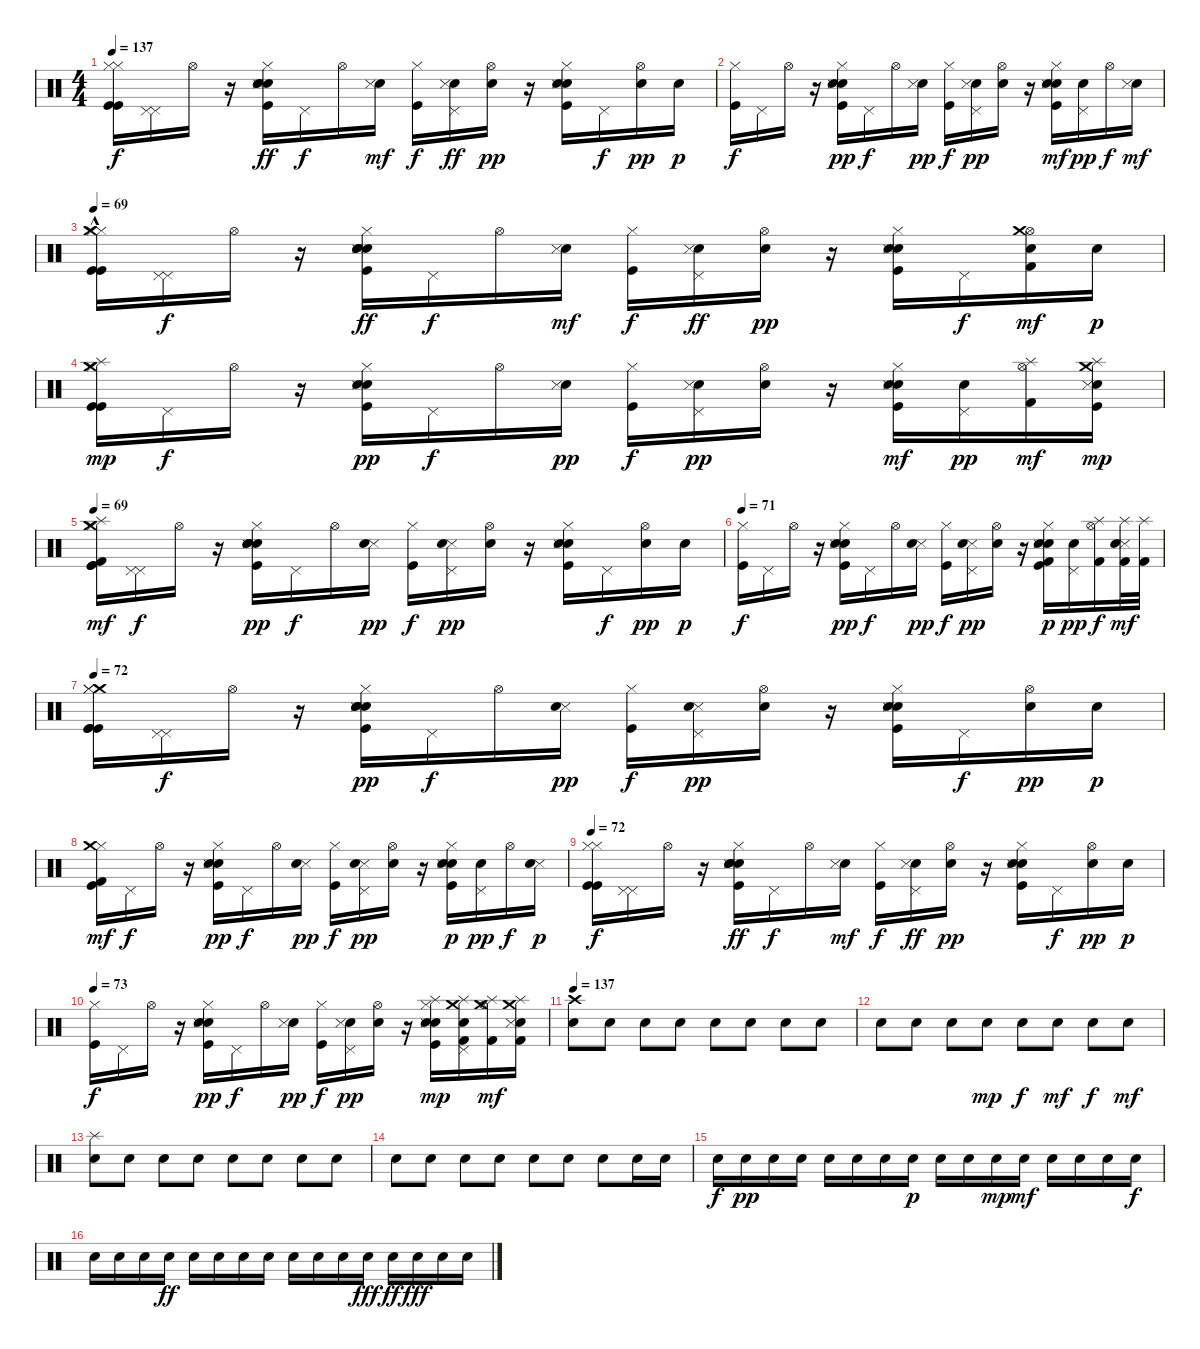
\track "" {instrument percussion}
\staff {score}
\articulation defaults
\ts (4 4)
\tempo 137
\clef neutral
\ks c
("Hi-Hat (closed)" "Kick (hit)" "Kick (hit)" "Hi-Hat (closed)").16{dy f volume 13} ("Pedal Hi-Hat (hit)" "Pedal Hi-Hat (hit)").16 "Hi-Hat (open)".16 r.16 ("Hand Clap (hit)" "Kick (hit)" "Hi-Hat (closed)" "Metronome (bell)" "Metronome (bell)" "Snare (side stick) 3").16{dy ff} "Pedal Hi-Hat (hit)".16{dy f} "Hi-Hat (open)".16 ("Metronome (bell)" "Snare (side stick) 3").16{dy mf} ("Kick (hit)" "Hi-Hat (closed)").16{dy f} ("Pedal Hi-Hat (hit)" "Metronome (bell)" "Snare (side stick) 3").16{dy ff} ("Hi-Hat (open)" "Metronome (bell)").16{dy pp} r.16 ("Hand Clap (hit)" "Hi-Hat (closed)" "Kick (hit)" "Metronome (bell)" "Snare (side stick) 3").16 "Pedal Hi-Hat (hit)".16{dy f} ("Hi-Hat (open)" "Metronome (bell)").16{dy pp} "Metronome (bell)".16{dy p} |
("Hi-Hat (closed)" "Kick (hit)").16{dy f} "Pedal Hi-Hat (hit)".16 "Hi-Hat (open)".16 r.16 ("Hand Clap (hit)" "Kick (hit)" "Hi-Hat (closed)" "Metronome (bell)" "Snare (side stick) 3").16{dy pp} "Pedal Hi-Hat (hit)".16{dy f} "Hi-Hat (open)".16 ("Metronome (bell)" "Snare (side stick) 3").16{dy pp} ("Kick (hit)" "Hi-Hat (closed)").16{dy f} ("Pedal Hi-Hat (hit)" "Metronome (bell)" "Snare (side stick) 3").16{dy pp} ("Hi-Hat (open)" "Metronome (bell)").16 r.16 ("Hand Clap (hit)" "Hi-Hat (closed)" "Kick (hit)" "Metronome (bell)" "Snare (side stick) 3").16{dy mf} ("Pedal Hi-Hat (hit)" "Metronome (bell)").16{dy pp} "Hi-Hat (open)".16{dy f} ("Metronome (bell)" "Snare (side stick) 3").16{dy mf} |
\tempo 69
("Hi-Hat (closed)" "Kick (hit)" "Kick (hit)" "Hi-Hat (closed)" "Crash medium (hit)"{hac}).16{volume 13} ("Pedal Hi-Hat (hit)" "Pedal Hi-Hat (hit)").16{dy f} "Hi-Hat (open)".16 r.16 ("Hand Clap (hit)" "Kick (hit)" "Hi-Hat (closed)" "Metronome (bell)" "Metronome (bell)" "Snare (side stick) 3").16{dy ff} "Pedal Hi-Hat (hit)".16{dy f} "Hi-Hat (open)".16 ("Metronome (bell)" "Snare (side stick) 3").16{dy mf} ("Kick (hit)" "Hi-Hat (closed)").16{dy f} ("Pedal Hi-Hat (hit)" "Metronome (bell)" "Snare (side stick) 3").16{dy ff} ("Hi-Hat (open)" "Metronome (bell)").16{dy pp} r.16 ("Hand Clap (hit)" "Hi-Hat (closed)" "Kick (hit)" "Metronome (bell)" "Snare (side stick) 3").16 "Pedal Hi-Hat (hit)".16{dy f} ("Hi-Hat (open)" "Metronome (bell)" "Kick (hit) 2" "Crash medium (hit)").16{dy mf} "Metronome (bell)".16{dy p} |
("Hi-Hat (closed)" "Kick (hit)" "Splash (hit)" "Kick (hit)" "Crash medium (hit)").16{dy mp} "Pedal Hi-Hat (hit)".16{dy f} "Hi-Hat (open)".16 r.16 ("Hand Clap (hit)" "Kick (hit)" "Hi-Hat (closed)" "Metronome (bell)" "Snare (side stick) 3").16{dy pp} "Pedal Hi-Hat (hit)".16{dy f} "Hi-Hat (open)".16 ("Metronome (bell)" "Snare (side stick) 3").16{dy pp} ("Kick (hit)" "Hi-Hat (closed)").16{dy f} ("Pedal Hi-Hat (hit)" "Metronome (bell)" "Snare (side stick) 3").16{dy pp} ("Hi-Hat (open)" "Metronome (bell)").16 r.16 ("Hand Clap (hit)" "Hi-Hat (closed)" "Kick (hit)" "Metronome (bell)" "Snare (side stick) 3").16{dy mf} ("Pedal Hi-Hat (hit)" "Metronome (bell)").16{dy pp} ("Hi-Hat (open)" "Splash (hit)" "Kick (hit) 2").16{dy mf} ("Metronome (bell)" "Snare (side stick) 3" "Splash (hit)" "Kick (hit)" "Crash medium (hit)").16{dy mp} |
\tempo 69
("Splash (hit)" "Kick (hit) 2" "Crash medium (hit)" "Hi-Hat (closed)" "Kick (hit)" "Kick (hit)").16{dy mf volume 13} ("Pedal Hi-Hat (hit)" "Pedal Hi-Hat (hit)").16{dy f} "Hi-Hat (open)".16 r.16 ("Hand Clap (hit)" "Kick (hit)" "Hi-Hat (closed)" "Snare (side stick) 3" "Metronome (bell)" "Metronome (bell)").16{dy pp} "Pedal Hi-Hat (hit)".16{dy f} "Hi-Hat (open)".16 ("Snare (side stick) 3" "Metronome (bell)").16{dy pp} ("Kick (hit)" "Hi-Hat (closed)").16{dy f} ("Pedal Hi-Hat (hit)" "Snare (side stick) 3" "Metronome (bell)").16{dy pp} ("Hi-Hat (open)" "Metronome (bell)").16 r.16 ("Hand Clap (hit)" "Hi-Hat (closed)" "Kick (hit)" "Snare (side stick) 3" "Metronome (bell)").16 "Pedal Hi-Hat (hit)".16{dy f} ("Hi-Hat (open)" "Metronome (bell)").16{dy pp} "Metronome (bell)".16{dy p} |
\tempo 71
("Hi-Hat (closed)" "Kick (hit)").16{dy f} "Pedal Hi-Hat (hit)".16 "Hi-Hat (open)".16 r.16 ("Hand Clap (hit)" "Kick (hit)" "Hi-Hat (closed)" "Snare (side stick) 3" "Metronome (bell)").16{dy pp} "Pedal Hi-Hat (hit)".16{dy f} "Hi-Hat (open)".16 ("Snare (side stick) 3" "Metronome (bell)").16{dy pp} ("Kick (hit)" "Hi-Hat (closed)").16{dy f} ("Pedal Hi-Hat (hit)" "Snare (side stick) 3" "Metronome (bell)").16{dy pp} ("Hi-Hat (open)" "Metronome (bell)").16 r.16 ("Hand Clap (hit)" "Hi-Hat (closed)" "Kick (hit)" "Snare (side stick) 3" "Metronome (bell)" "Kick (hit) 2").16{dy p} ("Pedal Hi-Hat (hit)" "Metronome (bell)").16{dy pp} ("Hi-Hat (open)" "Splash (hit)" "Kick (hit) 2").16{dy f} ("Snare (side stick) 3" "Metronome (bell)" "Splash (hit)" "Kick (hit) 2").32{dy mf} ("Kick (hit) 2" "Splash (hit)").32 |
\tempo 72
("Kick (hit)" "Crash medium (hit)" "Hi-Hat (closed)" "Kick (hit)" "Kick (hit)" "Hi-Hat (closed)").16{volume 13} ("Pedal Hi-Hat (hit)" "Pedal Hi-Hat (hit)").16{dy f} "Hi-Hat (open)".16 r.16 ("Hand Clap (hit)" "Kick (hit)" "Hi-Hat (closed)" "Snare (side stick) 3" "Metronome (bell)" "Metronome (bell)").16{dy pp} "Pedal Hi-Hat (hit)".16{dy f} "Hi-Hat (open)".16 ("Snare (side stick) 3" "Metronome (bell)").16{dy pp} ("Kick (hit)" "Hi-Hat (closed)").16{dy f} ("Pedal Hi-Hat (hit)" "Snare (side stick) 3" "Metronome (bell)").16{dy pp} ("Hi-Hat (open)" "Metronome (bell)").16 r.16 ("Hand Clap (hit)" "Hi-Hat (closed)" "Kick (hit)" "Snare (side stick) 3" "Metronome (bell)").16 "Pedal Hi-Hat (hit)".16{dy f} ("Hi-Hat (open)" "Metronome (bell)").16{dy pp} "Metronome (bell)".16{dy p} |
("Hi-Hat (closed)" "Kick (hit)" "Kick (hit) 2" "Crash medium (hit)").16{dy mf} "Pedal Hi-Hat (hit)".16{dy f} "Hi-Hat (open)".16 r.16 ("Hand Clap (hit)" "Kick (hit)" "Hi-Hat (closed)" "Snare (side stick) 3" "Metronome (bell)").16{dy pp} "Pedal Hi-Hat (hit)".16{dy f} "Hi-Hat (open)".16 ("Snare (side stick) 3" "Metronome (bell)").16{dy pp} ("Kick (hit)" "Hi-Hat (closed)").16{dy f} ("Pedal Hi-Hat (hit)" "Snare (side stick) 3" "Metronome (bell)").16{dy pp} ("Hi-Hat (open)" "Metronome (bell)").16 r.16 ("Hand Clap (hit)" "Hi-Hat (closed)" "Kick (hit)" "Snare (side stick) 3" "Metronome (bell)").16{dy p} ("Pedal Hi-Hat (hit)" "Metronome (bell)").16{dy pp} "Hi-Hat (open)".16{dy f} ("Snare (side stick) 3" "Metronome (bell)").16{dy p} |
\tempo 72
("Hi-Hat (closed)" "Kick (hit)" "Kick (hit)" "Hi-Hat (closed)").16{dy f volume 13} ("Pedal Hi-Hat (hit)" "Pedal Hi-Hat (hit)").16 "Hi-Hat (open)".16 r.16 ("Hand Clap (hit)" "Kick (hit)" "Hi-Hat (closed)" "Metronome (bell)" "Metronome (bell)" "Snare (side stick) 3").16{dy ff} "Pedal Hi-Hat (hit)".16{dy f} "Hi-Hat (open)".16 ("Metronome (bell)" "Snare (side stick) 3").16{dy mf} ("Kick (hit)" "Hi-Hat (closed)").16{dy f} ("Pedal Hi-Hat (hit)" "Metronome (bell)" "Snare (side stick) 3").16{dy ff} ("Hi-Hat (open)" "Metronome (bell)").16{dy pp} r.16 ("Hand Clap (hit)" "Hi-Hat (closed)" "Kick (hit)" "Metronome (bell)" "Snare (side stick) 3").16 "Pedal Hi-Hat (hit)".16{dy f} ("Hi-Hat (open)" "Metronome (bell)").16{dy pp} "Metronome (bell)".16{dy p} |
\tempo 73
("Hi-Hat (closed)" "Kick (hit)").16{dy f} "Pedal Hi-Hat (hit)".16 "Hi-Hat (open)".16 r.16 ("Hand Clap (hit)" "Kick (hit)" "Hi-Hat (closed)" "Metronome (bell)" "Snare (side stick) 3").16{dy pp} "Pedal Hi-Hat (hit)".16{dy f} "Hi-Hat (open)".16 ("Metronome (bell)" "Snare (side stick) 3").16{dy pp} ("Kick (hit)" "Hi-Hat (closed)").16{dy f} ("Pedal Hi-Hat (hit)" "Metronome (bell)" "Snare (side stick) 3").16{dy pp} ("Hi-Hat (open)" "Metronome (bell)").16 r.16 ("Hand Clap (hit)" "Hi-Hat (closed)" "Kick (hit)" "Metronome (bell)" "Snare (side stick) 3" "Splash (hit)").16{dy mp} ("Pedal Hi-Hat (hit)" "Metronome (bell)" "Splash (hit)" "Kick (hit) 2" "Crash medium (hit)").16 ("Hi-Hat (open)" "Splash (hit)" "Crash medium (hit)" "Kick (hit) 2").16{dy mf} ("Metronome (bell)" "Snare (side stick) 3" "Kick (hit) 2" "Splash (hit)" "Crash medium (hit)").16 |
\tempo 137
("Crash high (hit)" "Snare (hit) 2").8 "Snare (hit) 2".8 "Snare (hit) 2".8 "Snare (hit) 2".8 "Snare (hit) 2".8 "Snare (hit) 2".8 "Snare (hit) 2".8 "Snare (hit) 2".8 |
"Snare (hit) 2".8 "Snare (hit) 2".8 "Snare (hit) 2".8 "Snare (hit) 2".8{dy mp} "Snare (hit) 2".8{dy f} "Snare (hit) 2".8{dy mf} "Snare (hit) 2".8{dy f} "Snare (hit) 2".8{dy mf} |
("Snare (hit) 2" "Splash (hit)").8 "Snare (hit) 2".8 "Snare (hit) 2".8 "Snare (hit) 2".8 "Snare (hit) 2".8 "Snare (hit) 2".8 "Snare (hit) 2".8 "Snare (hit) 2".8 |
"Snare (hit) 2".8 "Snare (hit) 2".8 "Snare (hit) 2".8 "Snare (hit) 2".8 "Snare (hit) 2".8 "Snare (hit) 2".8 "Snare (hit) 2".8 "Snare (hit) 2".16 "Snare (hit) 2".16 |
"Snare (hit) 2".16{dy f} "Snare (hit) 2".16{dy pp} "Snare (hit) 2".16 "Snare (hit) 2".16 "Snare (hit) 2".16 "Snare (hit) 2".16 "Snare (hit) 2".16 "Snare (hit) 2".16{dy p} "Snare (hit) 2".16 "Snare (hit) 2".16 "Snare (hit) 2".16{dy mp} "Snare (hit) 2".16{dy mf} "Snare (hit) 2".16 "Snare (hit) 2".16 "Snare (hit) 2".16 "Snare (hit) 2".16{dy f} |
"Snare (hit) 2".16 "Snare (hit) 2".16 "Snare (hit) 2".16 "Snare (hit) 2".16{dy ff} "Snare (hit) 2".16 "Snare (hit) 2".16 "Snare (hit) 2".16 "Snare (hit) 2".16 "Snare (hit) 2".16 "Snare (hit) 2".16 "Snare (hit) 2".16 "Snare (hit) 2".16{dy fff} "Snare (hit) 2".16{dy ff} "Snare (hit) 2".16{dy fff} "Snare (hit) 2".16 "Snare (hit) 2".16
